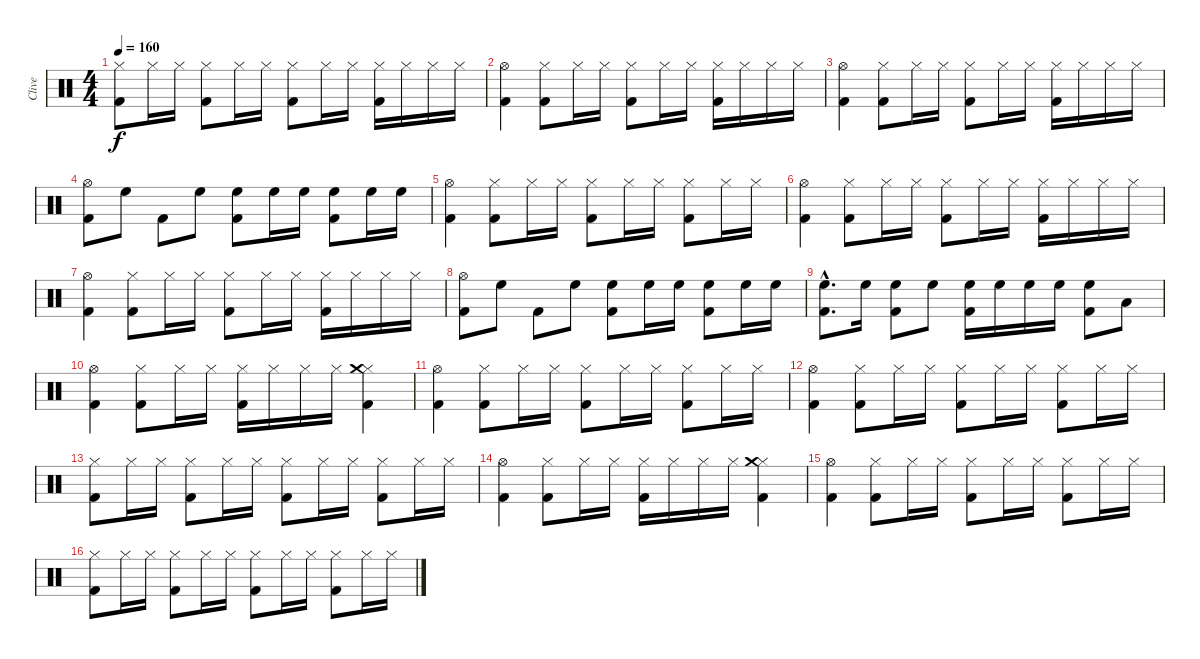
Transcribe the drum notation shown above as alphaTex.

\track ("Clive" "Clive") {instrument percussion}
\staff {score}
\articulation defaults
\ts (4 4)
\tempo 160
\clef neutral
\ks c
("Hi-Hat (closed)" "Kick (hit) 2").8{dy f} "Hi-Hat (closed)".16 "Hi-Hat (closed)".16 ("Hi-Hat (closed)" "Kick (hit) 2").8 "Hi-Hat (closed)".16 "Hi-Hat (closed)".16 ("Hi-Hat (closed)" "Kick (hit) 2").8 "Hi-Hat (closed)".16 "Hi-Hat (closed)".16 ("Hi-Hat (closed)" "Kick (hit) 2").16 "Hi-Hat (closed)".16 "Hi-Hat (closed)".16 "Hi-Hat (closed)".16 |
("Hi-Hat (open)" "Kick (hit) 2").4 ("Hi-Hat (closed)" "Kick (hit) 2").8 "Hi-Hat (closed)".16 "Hi-Hat (closed)".16 ("Hi-Hat (closed)" "Kick (hit) 2").8 "Hi-Hat (closed)".16 "Hi-Hat (closed)".16 ("Hi-Hat (closed)" "Kick (hit) 2").16 "Hi-Hat (closed)".16 "Hi-Hat (closed)".16 "Hi-Hat (closed)".16 |
("Hi-Hat (open)" "Kick (hit) 2").4 ("Hi-Hat (closed)" "Kick (hit) 2").8 "Hi-Hat (closed)".16 "Hi-Hat (closed)".16 ("Hi-Hat (closed)" "Kick (hit) 2").8 "Hi-Hat (closed)".16 "Hi-Hat (closed)".16 ("Hi-Hat (closed)" "Kick (hit) 2").16 "Hi-Hat (closed)".16 "Hi-Hat (closed)".16 "Hi-Hat (closed)".16 |
("Hi-Hat (open)" "Kick (hit) 2").8 "High Floor Tom (hit)".8 "Kick (hit) 2".8 "High Floor Tom (hit)".8 ("High Floor Tom (hit)" "Kick (hit) 2").8 "High Floor Tom (hit)".16 "High Floor Tom (hit)".16 ("High Floor Tom (hit)" "Kick (hit) 2").8 "High Floor Tom (hit)".16 "High Floor Tom (hit)".16 |
("Hi-Hat (open)" "Kick (hit) 2").4 ("Hi-Hat (closed)" "Kick (hit) 2").8 "Hi-Hat (closed)".16 "Hi-Hat (closed)".16 ("Hi-Hat (closed)" "Kick (hit) 2").8 "Hi-Hat (closed)".16 "Hi-Hat (closed)".16 ("Hi-Hat (closed)" "Kick (hit) 2").8 "Hi-Hat (closed)".16 "Hi-Hat (closed)".16 |
("Hi-Hat (open)" "Kick (hit) 2").4 ("Hi-Hat (closed)" "Kick (hit) 2").8 "Hi-Hat (closed)".16 "Hi-Hat (closed)".16 ("Hi-Hat (closed)" "Kick (hit) 2").8 "Hi-Hat (closed)".16 "Hi-Hat (closed)".16 ("Hi-Hat (closed)" "Kick (hit) 2").16 "Hi-Hat (closed)".16 "Hi-Hat (closed)".16 "Hi-Hat (closed)".16 |
("Hi-Hat (open)" "Kick (hit) 2").4 ("Hi-Hat (closed)" "Kick (hit) 2").8 "Hi-Hat (closed)".16 "Hi-Hat (closed)".16 ("Hi-Hat (closed)" "Kick (hit) 2").8 "Hi-Hat (closed)".16 "Hi-Hat (closed)".16 ("Hi-Hat (closed)" "Kick (hit) 2").16 "Hi-Hat (closed)".16 "Hi-Hat (closed)".16 "Hi-Hat (closed)".16 |
("Hi-Hat (open)" "Kick (hit) 2").8 "High Floor Tom (hit)".8 "Kick (hit) 2".8 "High Floor Tom (hit)".8 ("High Floor Tom (hit)" "Kick (hit) 2").8 "High Floor Tom (hit)".16 "High Floor Tom (hit)".16 ("High Floor Tom (hit)" "Kick (hit) 2").8 "High Floor Tom (hit)".16 "High Floor Tom (hit)".16 |
("High Floor Tom (hit)"{hac} "Kick (hit) 2"{hac}).8{d} "High Floor Tom (hit)".16 ("High Floor Tom (hit)" "Kick (hit) 2").8 "High Floor Tom (hit)".8 ("High Floor Tom (hit)" "Kick (hit) 2").16 "High Floor Tom (hit)".16 "High Floor Tom (hit)".16 "High Floor Tom (hit)".16 ("High Floor Tom (hit)" "Kick (hit) 2").8 "Low Tom (hit)".8 |
("Hi-Hat (open)" "Kick (hit) 2").4 ("Hi-Hat (closed)" "Kick (hit) 2").8 "Hi-Hat (closed)".16 "Hi-Hat (closed)".16 ("Hi-Hat (closed)" "Kick (hit) 2").16 "Hi-Hat (closed)".16 "Hi-Hat (closed)".16 "Hi-Hat (closed)".16 ("Hi-Hat (closed)" "Crash medium (hit)" "Kick (hit) 2").4 |
("Hi-Hat (open)" "Kick (hit) 2").4 ("Hi-Hat (closed)" "Kick (hit) 2").8 "Hi-Hat (closed)".16 "Hi-Hat (closed)".16 ("Hi-Hat (closed)" "Kick (hit) 2").8 "Hi-Hat (closed)".16 "Hi-Hat (closed)".16 ("Hi-Hat (closed)" "Kick (hit) 2").8 "Hi-Hat (closed)".16 "Hi-Hat (closed)".16 |
("Hi-Hat (open)" "Kick (hit) 2").4 ("Hi-Hat (closed)" "Kick (hit) 2").8 "Hi-Hat (closed)".16 "Hi-Hat (closed)".16 ("Hi-Hat (closed)" "Kick (hit) 2").8 "Hi-Hat (closed)".16 "Hi-Hat (closed)".16 ("Hi-Hat (closed)" "Kick (hit) 2").8 "Hi-Hat (closed)".16 "Hi-Hat (closed)".16 |
("Hi-Hat (closed)" "Kick (hit) 2").8 "Hi-Hat (closed)".16 "Hi-Hat (closed)".16 ("Hi-Hat (closed)" "Kick (hit) 2").8 "Hi-Hat (closed)".16 "Hi-Hat (closed)".16 ("Hi-Hat (closed)" "Kick (hit) 2").8 "Hi-Hat (closed)".16 "Hi-Hat (closed)".16 ("Hi-Hat (closed)" "Kick (hit) 2").8 "Hi-Hat (closed)".16 "Hi-Hat (closed)".16 |
("Hi-Hat (open)" "Kick (hit) 2").4 ("Hi-Hat (closed)" "Kick (hit) 2").8 "Hi-Hat (closed)".16 "Hi-Hat (closed)".16 ("Hi-Hat (closed)" "Kick (hit) 2").16 "Hi-Hat (closed)".16 "Hi-Hat (closed)".16 "Hi-Hat (closed)".16 ("Hi-Hat (closed)" "Crash medium (hit)" "Kick (hit) 2").4 |
("Hi-Hat (open)" "Kick (hit) 2").4 ("Hi-Hat (closed)" "Kick (hit) 2").8 "Hi-Hat (closed)".16 "Hi-Hat (closed)".16 ("Hi-Hat (closed)" "Kick (hit) 2").8 "Hi-Hat (closed)".16 "Hi-Hat (closed)".16 ("Hi-Hat (closed)" "Kick (hit) 2").8 "Hi-Hat (closed)".16 "Hi-Hat (closed)".16 |
("Hi-Hat (closed)" "Kick (hit) 2").8 "Hi-Hat (closed)".16 "Hi-Hat (closed)".16 ("Hi-Hat (closed)" "Kick (hit) 2").8 "Hi-Hat (closed)".16 "Hi-Hat (closed)".16 ("Hi-Hat (closed)" "Kick (hit) 2").8 "Hi-Hat (closed)".16 "Hi-Hat (closed)".16 ("Hi-Hat (closed)" "Kick (hit) 2").8 "Hi-Hat (closed)".16 "Hi-Hat (closed)".16
